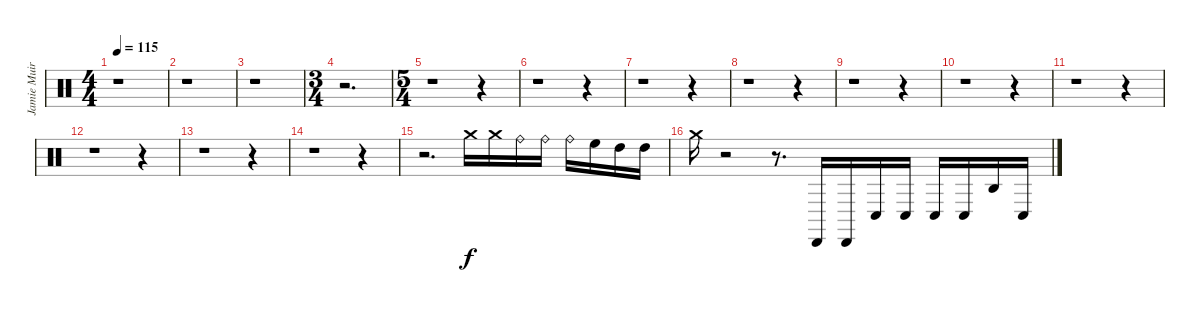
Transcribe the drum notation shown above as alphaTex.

\track ("Jamie Muir effects" "Jamie Muir") {instrument percussion}
\staff {score}
\articulation defaults
\ts (4 4)
\tempo 115
\clef neutral
\ks c
r.1{dy f} |
r.1 |
r.1 |
\ts (3 4)
r.2{d} |
\ts (5 4)
r.1 r.4 |
r.1 r.4 |
r.1 r.4 |
r.1 r.4 |
r.1 r.4 |
r.1 r.4 |
r.1 r.4 |
r.1 r.4 |
r.1 r.4 |
r.1 r.4 |
r.2{d} "Crash medium (hit)".16 "Crash medium (hit)".16 "Ride (bell)".16 "Ride (bell)".16 "Ride (bell)".16 "High Floor Tom (hit)".16 "High Tom (hit)".16 "High Tom (hit)".16 |
"Crash medium (hit)".16 r.2 r.8{d} "Cabasa (hit)".16 "Cabasa (hit)".16 "Conga low (hit)".16 "Conga low (hit)".16 "Conga low (hit)".16 "Conga low (hit)".16 "Agogo high (hit)".16 "Conga low (hit)".16
